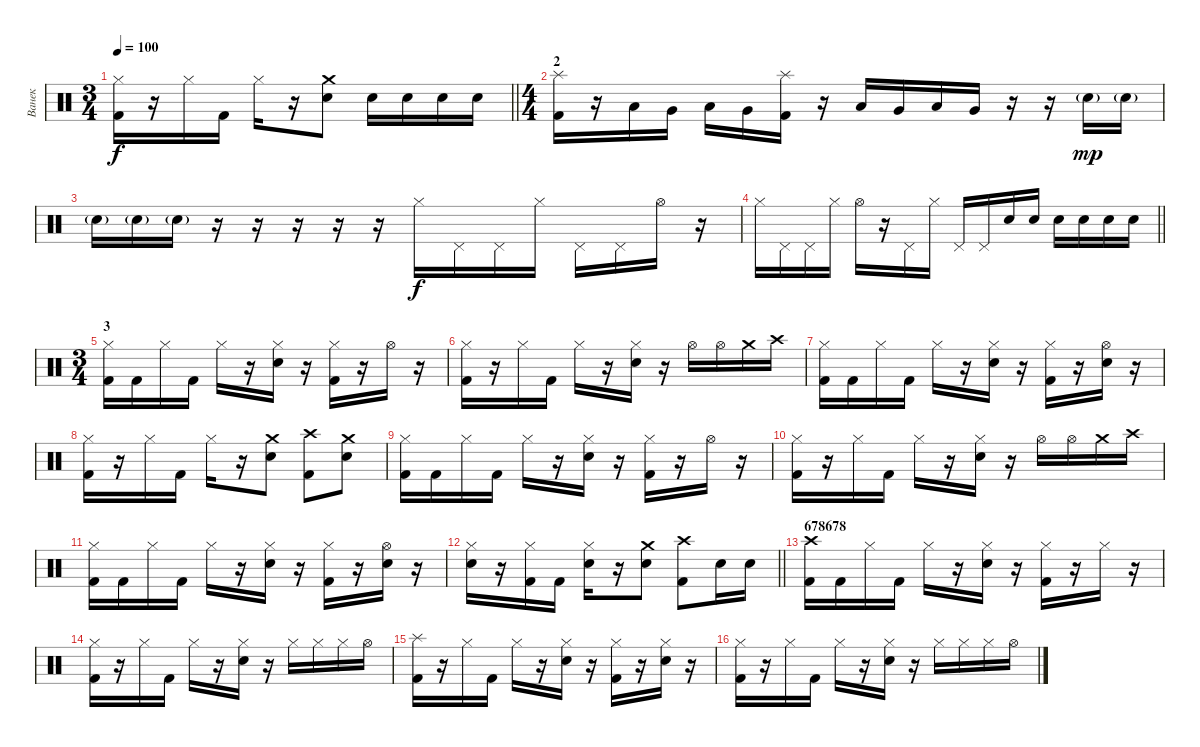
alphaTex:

\track ("Ванек" "Ванек") {instrument percussion}
\staff {score}
\articulation defaults
\ts (3 4)
\tempo 100
\clef neutral
\barLineRight lightlight
\ks c
("Hi-Hat (closed)" "Kick (hit) 2").16{dy f} r.16 "Hi-Hat (closed)".16 "Kick (hit) 2".16 "Hi-Hat (closed)".16 r.16 ("Crash medium (hit)" "Snare (hit) 2").8 "Snare (hit) 2".16 "Snare (hit) 2".16 "Snare (hit) 2".16 "Snare (hit) 2".16 |
\ts (4 4)
\section ("" "2")
("Splash (hit)" "Kick (hit) 2").16 r.16 "Low Tom (hit)".16 "Very Low Tom (hit)".16 "Low Floor Tom (hit)".16 "Very Low Tom (hit)".16 ("Splash (hit)" "Kick (hit) 2").16 r.16 "Low Tom (hit)".16 "Very Low Tom (hit)".16 "Low Floor Tom (hit)".16 "Very Low Tom (hit)".16 r.16 r.16 "Snare (hit) 2"{g}.16{dy mp} "Snare (hit) 2"{g}.16 |
"Snare (hit) 2"{g}.16 "Snare (hit) 2"{g}.16 "Snare (hit) 2"{g}.16 r.16 r.16 r.16 r.16 r.16 "Hi-Hat (closed)".16{dy f} "Pedal Hi-Hat (hit)".16 "Pedal Hi-Hat (hit)".16 "Hi-Hat (closed)".16 "Pedal Hi-Hat (hit)".16 "Pedal Hi-Hat (hit)".16 "Hi-Hat (open)".16 r.16 |
\barLineRight lightlight "Hi-Hat (closed)".16 "Pedal Hi-Hat (hit)".16 "Pedal Hi-Hat (hit)".16 "Hi-Hat (closed)".16 "Hi-Hat (open)".16
r.16 "Pedal Hi-Hat (hit)".16 "Hi-Hat (closed)".16 "Pedal Hi-Hat (hit)".16 "Pedal Hi-Hat (hit)".16 "Snare (hit) 2".16 "Snare (hit) 2".16 "Snare (hit) 2".16 "Snare (hit) 2".16 "Snare (hit) 2".16 "Snare (hit) 2".16 |
\ts (3 4)
\section ("" "3")
("Hi-Hat (closed)" "Kick (hit) 2").16 "Kick (hit) 2".16 "Hi-Hat (closed)".16 "Kick (hit) 2".16 "Hi-Hat (closed)".16 r.16 ("Hi-Hat (closed)" "Snare (hit) 2").16 r.16 ("Hi-Hat (closed)" "Kick (hit) 2").16 r.16 "Hi-Hat (open)".16 r.16 |
("Hi-Hat (closed)" "Kick (hit) 2").16 r.16 "Hi-Hat (closed)".16 "Kick (hit) 2".16 "Hi-Hat (closed)".16 r.16 ("Hi-Hat (closed)" "Snare (hit) 2").16 r.16 "Hi-Hat (open)".16 "Hi-Hat (open)".16 "Crash medium (hit)".16 "Crash high (hit)".16 |
("Hi-Hat (closed)" "Kick (hit) 2").16 "Kick (hit) 2".16 "Hi-Hat (closed)".16 "Kick (hit) 2".16 "Hi-Hat (closed)".16 r.16 ("Hi-Hat (closed)" "Snare (hit) 2").16 r.16 ("Hi-Hat (closed)" "Kick (hit) 2").16 r.16 ("Hi-Hat (open)" "Snare (hit) 2").16 r.16 |
("Hi-Hat (closed)" "Kick (hit) 2").16 r.16 "Hi-Hat (closed)".16 "Kick (hit) 2".16 "Hi-Hat (closed)".16 r.16 ("Crash medium (hit)" "Snare (hit) 2").8 ("Crash high (hit)" "Kick (hit) 2").8 ("Crash medium (hit)" "Snare (hit) 2").8 |
("Hi-Hat (closed)" "Kick (hit) 2").16 "Kick (hit) 2".16 "Hi-Hat (closed)".16 "Kick (hit) 2".16 "Hi-Hat (closed)".16 r.16 ("Hi-Hat (closed)" "Snare (hit) 2").16 r.16 ("Hi-Hat (closed)" "Kick (hit) 2").16 r.16 "Hi-Hat (open)".16 r.16 |
("Hi-Hat (closed)" "Kick (hit) 2").16 r.16 "Hi-Hat (closed)".16 "Kick (hit) 2".16 "Hi-Hat (closed)".16 r.16 ("Hi-Hat (closed)" "Snare (hit) 2").16 r.16 "Hi-Hat (open)".16 "Hi-Hat (open)".16 "Crash medium (hit)".16 "Crash high (hit)".16 |
("Hi-Hat (closed)" "Kick (hit) 2").16 "Kick (hit) 2".16 "Hi-Hat (closed)".16 "Kick (hit) 2".16 "Hi-Hat (closed)".16 r.16 ("Hi-Hat (closed)" "Snare (hit) 2").16 r.16 ("Hi-Hat (closed)" "Kick (hit) 2").16 r.16 ("Hi-Hat (open)" "Snare (hit) 2").16 r.16 |
\barLineRight lightlight
("Hi-Hat (closed)" "Snare (hit) 2").16 r.16 ("Hi-Hat (closed)" "Kick (hit) 2").16 "Kick (hit) 2".16 ("Hi-Hat (closed)" "Snare (hit) 2").16 r.16 ("Crash medium (hit)" "Snare (hit) 2").8 ("Crash high (hit)" "Kick (hit) 2").8 "Snare (hit) 2".16 "Snare (hit) 2".16 |
\section ("" "678678")
("Crash high (hit)" "Kick (hit) 2").16 "Kick (hit) 2".16 "Hi-Hat (closed)".16 "Kick (hit) 2".16 "Hi-Hat (closed)".16 r.16 ("Hi-Hat (closed)" "Snare (hit) 2").16 r.16 ("Hi-Hat (closed)" "Kick (hit) 2").16 r.16 "Hi-Hat (closed)".16 r.16 |
("Hi-Hat (closed)" "Kick (hit) 2").16 r.16 "Hi-Hat (closed)".16 "Kick (hit) 2".16 "Hi-Hat (closed)".16 r.16 ("Hi-Hat (closed)" "Snare (hit) 2").16 r.16 "Hi-Hat (closed)".16 "Hi-Hat (closed)".16 "Hi-Hat (closed)".16 "Hi-Hat (open)".16 |
("Splash (hit)" "Kick (hit) 2").16 r.16 "Hi-Hat (closed)".16 "Kick (hit) 2".16 "Hi-Hat (closed)".16 r.16 ("Hi-Hat (closed)" "Snare (hit) 2").16 r.16 ("Hi-Hat (closed)" "Kick (hit) 2").16 r.16 ("Hi-Hat (closed)" "Snare (hit) 2").16 r.16 |
("Hi-Hat (closed)" "Kick (hit) 2").16 r.16 "Hi-Hat (closed)".16 "Kick (hit) 2".16 "Hi-Hat (closed)".16 r.16 ("Hi-Hat (closed)" "Snare (hit) 2").16 r.16 "Hi-Hat (closed)".16 "Hi-Hat (closed)".16 "Hi-Hat (closed)".16 "Hi-Hat (open)".16
